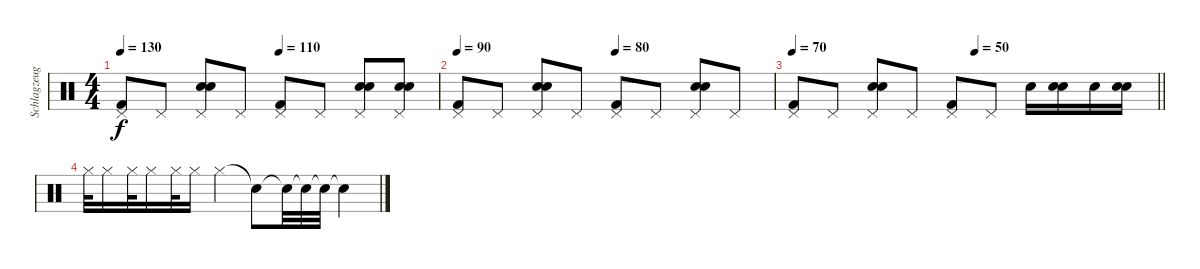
\track ("Schlagzeug" "Schlagzeug") {instrument percussion}
\staff {score}
\articulation defaults
\ts (4 4)
\tempo 130
\tempo (110 0.5)
\clef neutral
\ks c
("Pedal Hi-Hat (hit)" "Kick (hit) 2").8{dy f} "Pedal Hi-Hat (hit)".8 ("Pedal Hi-Hat (hit)" "Snare (hit) 2" "Snare (hit) 2").8 "Pedal Hi-Hat (hit)".8 ("Pedal Hi-Hat (hit)" "Kick (hit) 2").8 "Pedal Hi-Hat (hit)".8 ("Pedal Hi-Hat (hit)" "Snare (hit) 2" "Snare (hit) 2").8 ("Pedal Hi-Hat (hit)" "Snare (hit) 2" "Snare (hit) 2").8 |
\tempo 90
\tempo (80 0.5)
("Pedal Hi-Hat (hit)" "Kick (hit) 2").8 "Pedal Hi-Hat (hit)".8 ("Pedal Hi-Hat (hit)" "Snare (hit) 2" "Snare (hit) 2").8 "Pedal Hi-Hat (hit)".8 ("Pedal Hi-Hat (hit)" "Kick (hit) 2").8 "Pedal Hi-Hat (hit)".8 ("Pedal Hi-Hat (hit)" "Snare (hit) 2" "Snare (hit) 2").8 "Pedal Hi-Hat (hit)".8 |
\tempo 70
\tempo (50 0.5)
\barLineRight lightlight
("Pedal Hi-Hat (hit)" "Kick (hit) 2").8 "Pedal Hi-Hat (hit)".8 ("Pedal Hi-Hat (hit)" "Snare (hit) 2" "Snare (hit) 2").8 "Pedal Hi-Hat (hit)".8 ("Pedal Hi-Hat (hit)" "Kick (hit) 2").8 "Pedal Hi-Hat (hit)".8 "Snare (hit) 2".16 ("Snare (hit) 2" "Snare (hit) 2").16 "Snare (hit) 2".16 ("Snare (hit) 2" "Snare (hit) 2").16 |
"Hi-Hat (closed)".32 "Hi-Hat (closed)".16 "Hi-Hat (closed)".32 "Hi-Hat (closed)".16 "Hi-Hat (closed)".32 "Hi-Hat (closed)".16 "Hi-Hat (closed)".4 "Snare (hit)"{t}.8 "Snare (hit)"{t}.32 "Snare (hit)"{t}.32 "Snare (hit)"{t}.32 "Snare (hit)"{t}.4
